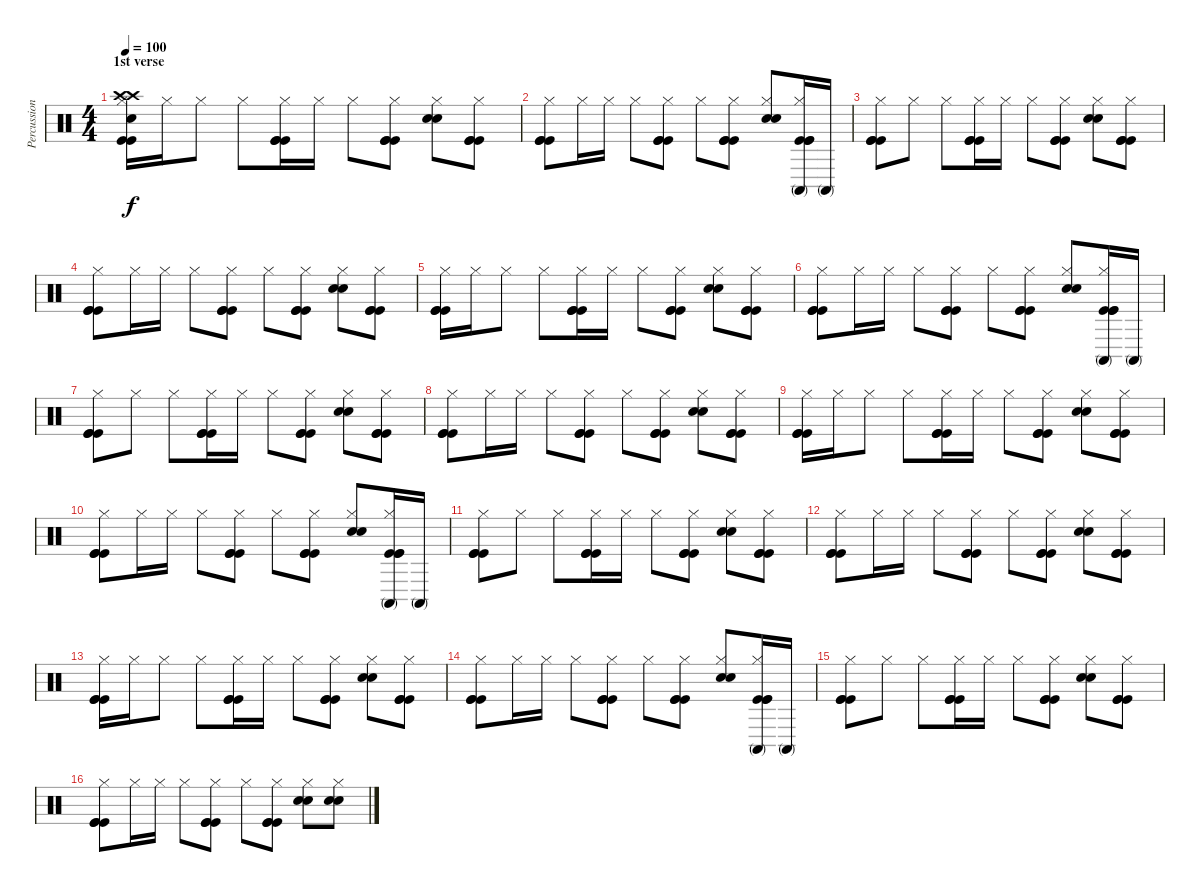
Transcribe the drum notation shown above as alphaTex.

\track ("Percussion" "Percussion") {instrument percussion}
\staff {score}
\articulation defaults
\ts (4 4)
\section ("" "1st verse")
\tempo 100
\clef neutral
\ks c
("Hi-Hat (closed)" "Crash high (hit)" "Crash high (hit)" "Electric Snare (hit)" "Kick (hit)" "Kick (hit)").16{dy f} "Hi-Hat (closed)".16 "Hi-Hat (closed)".8 "Hi-Hat (closed)".8 ("Hi-Hat (closed)" "Kick (hit)" "Kick (hit)" "Kick (hit)").16 "Hi-Hat (closed)".16 "Hi-Hat (closed)".8 ("Hi-Hat (closed)" "Kick (hit)" "Kick (hit)" "Kick (hit)").8 ("Hi-Hat (closed)" "Electric Snare (hit)" "Electric Snare (hit)").8 ("Hi-Hat (closed)" "Kick (hit)" "Kick (hit)" "Kick (hit)").8 |
("Hi-Hat (closed)" "Kick (hit)" "Kick (hit)" "Kick (hit)").8 "Hi-Hat (closed)".16 "Hi-Hat (closed)".16 "Hi-Hat (closed)".8 ("Hi-Hat (closed)" "Kick (hit)" "Kick (hit)" "Kick (hit)").8 "Hi-Hat (closed)".8 ("Hi-Hat (closed)" "Kick (hit)" "Kick (hit)" "Kick (hit)").8 ("Hi-Hat (closed)" "Electric Snare (hit)" "Electric Snare (hit)").8 ("Hi-Hat (closed)" "Conga high (mute)" "Kick (hit)" "Kick (hit)" "Kick (hit)").16 "Conga high (mute)".16 |
("Hi-Hat (closed)" "Kick (hit)" "Kick (hit)" "Kick (hit)").8 "Hi-Hat (closed)".8 "Hi-Hat (closed)".8 ("Hi-Hat (closed)" "Kick (hit)" "Kick (hit)" "Kick (hit)").16 "Hi-Hat (closed)".16 "Hi-Hat (closed)".8 ("Hi-Hat (closed)" "Kick (hit)" "Kick (hit)" "Kick (hit)").8 ("Hi-Hat (closed)" "Electric Snare (hit)" "Electric Snare (hit)").8 ("Hi-Hat (closed)" "Kick (hit)" "Kick (hit)" "Kick (hit)").8 |
("Hi-Hat (closed)" "Kick (hit)" "Kick (hit)" "Kick (hit)").8 "Hi-Hat (closed)".16 "Hi-Hat (closed)".16 "Hi-Hat (closed)".8 ("Hi-Hat (closed)" "Kick (hit)" "Kick (hit)" "Kick (hit)").8 "Hi-Hat (closed)".8 ("Hi-Hat (closed)" "Kick (hit)" "Kick (hit)" "Kick (hit)").8 ("Hi-Hat (closed)" "Electric Snare (hit)" "Electric Snare (hit)").8 ("Hi-Hat (closed)" "Kick (hit)" "Kick (hit)" "Kick (hit)").8 |
("Hi-Hat (closed)" "Kick (hit)" "Kick (hit)" "Kick (hit)").16 "Hi-Hat (closed)".16 "Hi-Hat (closed)".8 "Hi-Hat (closed)".8 ("Hi-Hat (closed)" "Kick (hit)" "Kick (hit)" "Kick (hit)").16 "Hi-Hat (closed)".16 "Hi-Hat (closed)".8 ("Hi-Hat (closed)" "Kick (hit)" "Kick (hit)" "Kick (hit)").8 ("Hi-Hat (closed)" "Electric Snare (hit)" "Electric Snare (hit)").8 ("Hi-Hat (closed)" "Kick (hit)" "Kick (hit)" "Kick (hit)").8 |
("Hi-Hat (closed)" "Kick (hit)" "Kick (hit)" "Kick (hit)").8 "Hi-Hat (closed)".16 "Hi-Hat (closed)".16 "Hi-Hat (closed)".8 ("Hi-Hat (closed)" "Kick (hit)" "Kick (hit)" "Kick (hit)").8 "Hi-Hat (closed)".8 ("Hi-Hat (closed)" "Kick (hit)" "Kick (hit)" "Kick (hit)").8 ("Hi-Hat (closed)" "Electric Snare (hit)" "Electric Snare (hit)").8 ("Hi-Hat (closed)" "Conga high (mute)" "Kick (hit)" "Kick (hit)" "Kick (hit)").16 "Conga high (mute)".16 |
("Hi-Hat (closed)" "Kick (hit)" "Kick (hit)" "Kick (hit)").8 "Hi-Hat (closed)".8 "Hi-Hat (closed)".8 ("Hi-Hat (closed)" "Kick (hit)" "Kick (hit)" "Kick (hit)").16 "Hi-Hat (closed)".16 "Hi-Hat (closed)".8 ("Hi-Hat (closed)" "Kick (hit)" "Kick (hit)" "Kick (hit)").8 ("Hi-Hat (closed)" "Electric Snare (hit)" "Electric Snare (hit)").8 ("Hi-Hat (closed)" "Kick (hit)" "Kick (hit)" "Kick (hit)").8 |
("Hi-Hat (closed)" "Kick (hit)" "Kick (hit)" "Kick (hit)").8 "Hi-Hat (closed)".16 "Hi-Hat (closed)".16 "Hi-Hat (closed)".8 ("Hi-Hat (closed)" "Kick (hit)" "Kick (hit)" "Kick (hit)").8 "Hi-Hat (closed)".8 ("Hi-Hat (closed)" "Kick (hit)" "Kick (hit)" "Kick (hit)").8 ("Hi-Hat (closed)" "Electric Snare (hit)" "Electric Snare (hit)").8 ("Hi-Hat (closed)" "Kick (hit)" "Kick (hit)" "Kick (hit)").8 |
("Hi-Hat (closed)" "Kick (hit)" "Kick (hit)" "Kick (hit)").16 "Hi-Hat (closed)".16 "Hi-Hat (closed)".8 "Hi-Hat (closed)".8 ("Hi-Hat (closed)" "Kick (hit)" "Kick (hit)" "Kick (hit)").16 "Hi-Hat (closed)".16 "Hi-Hat (closed)".8 ("Hi-Hat (closed)" "Kick (hit)" "Kick (hit)" "Kick (hit)").8 ("Hi-Hat (closed)" "Electric Snare (hit)" "Electric Snare (hit)").8 ("Hi-Hat (closed)" "Kick (hit)" "Kick (hit)" "Kick (hit)").8 |
("Hi-Hat (closed)" "Kick (hit)" "Kick (hit)" "Kick (hit)").8 "Hi-Hat (closed)".16 "Hi-Hat (closed)".16 "Hi-Hat (closed)".8 ("Hi-Hat (closed)" "Kick (hit)" "Kick (hit)" "Kick (hit)").8 "Hi-Hat (closed)".8 ("Hi-Hat (closed)" "Kick (hit)" "Kick (hit)" "Kick (hit)").8 ("Hi-Hat (closed)" "Electric Snare (hit)" "Electric Snare (hit)").8 ("Hi-Hat (closed)" "Conga high (mute)" "Kick (hit)" "Kick (hit)" "Kick (hit)").16 "Conga high (mute)".16 |
("Hi-Hat (closed)" "Kick (hit)" "Kick (hit)" "Kick (hit)").8 "Hi-Hat (closed)".8 "Hi-Hat (closed)".8 ("Hi-Hat (closed)" "Kick (hit)" "Kick (hit)" "Kick (hit)").16 "Hi-Hat (closed)".16 "Hi-Hat (closed)".8 ("Hi-Hat (closed)" "Kick (hit)" "Kick (hit)" "Kick (hit)").8 ("Hi-Hat (closed)" "Electric Snare (hit)" "Electric Snare (hit)").8 ("Hi-Hat (closed)" "Kick (hit)" "Kick (hit)" "Kick (hit)").8 |
("Hi-Hat (closed)" "Kick (hit)" "Kick (hit)" "Kick (hit)").8 "Hi-Hat (closed)".16 "Hi-Hat (closed)".16 "Hi-Hat (closed)".8 ("Hi-Hat (closed)" "Kick (hit)" "Kick (hit)" "Kick (hit)").8 "Hi-Hat (closed)".8 ("Hi-Hat (closed)" "Kick (hit)" "Kick (hit)" "Kick (hit)").8 ("Hi-Hat (closed)" "Electric Snare (hit)" "Electric Snare (hit)").8 ("Hi-Hat (closed)" "Kick (hit)" "Kick (hit)" "Kick (hit)").8 |
("Hi-Hat (closed)" "Kick (hit)" "Kick (hit)" "Kick (hit)").16 "Hi-Hat (closed)".16 "Hi-Hat (closed)".8 "Hi-Hat (closed)".8 ("Hi-Hat (closed)" "Kick (hit)" "Kick (hit)" "Kick (hit)").16 "Hi-Hat (closed)".16 "Hi-Hat (closed)".8 ("Hi-Hat (closed)" "Kick (hit)" "Kick (hit)" "Kick (hit)").8 ("Hi-Hat (closed)" "Electric Snare (hit)" "Electric Snare (hit)").8 ("Hi-Hat (closed)" "Kick (hit)" "Kick (hit)" "Kick (hit)").8 |
("Hi-Hat (closed)" "Kick (hit)" "Kick (hit)" "Kick (hit)").8 "Hi-Hat (closed)".16 "Hi-Hat (closed)".16 "Hi-Hat (closed)".8 ("Hi-Hat (closed)" "Kick (hit)" "Kick (hit)" "Kick (hit)").8 "Hi-Hat (closed)".8 ("Hi-Hat (closed)" "Kick (hit)" "Kick (hit)" "Kick (hit)").8 ("Hi-Hat (closed)" "Electric Snare (hit)" "Electric Snare (hit)").8 ("Hi-Hat (closed)" "Conga high (mute)" "Kick (hit)" "Kick (hit)" "Kick (hit)").16 "Conga high (mute)".16 |
("Hi-Hat (closed)" "Kick (hit)" "Kick (hit)" "Kick (hit)").8 "Hi-Hat (closed)".8 "Hi-Hat (closed)".8 ("Hi-Hat (closed)" "Kick (hit)" "Kick (hit)" "Kick (hit)").16 "Hi-Hat (closed)".16 "Hi-Hat (closed)".8 ("Hi-Hat (closed)" "Kick (hit)" "Kick (hit)" "Kick (hit)").8 ("Hi-Hat (closed)" "Electric Snare (hit)" "Electric Snare (hit)").8 ("Hi-Hat (closed)" "Kick (hit)" "Kick (hit)" "Kick (hit)").8 |
("Hi-Hat (closed)" "Kick (hit)" "Kick (hit)" "Kick (hit)").8 "Hi-Hat (closed)".16 "Hi-Hat (closed)".16 "Hi-Hat (closed)".8 ("Hi-Hat (closed)" "Kick (hit)" "Kick (hit)" "Kick (hit)").8 "Hi-Hat (closed)".8 ("Hi-Hat (closed)" "Kick (hit)" "Kick (hit)" "Kick (hit)").8 ("Hi-Hat (closed)" "Electric Snare (hit)" "Electric Snare (hit)").8 ("Hi-Hat (closed)" "Electric Snare (hit)" "Electric Snare (hit)").8
